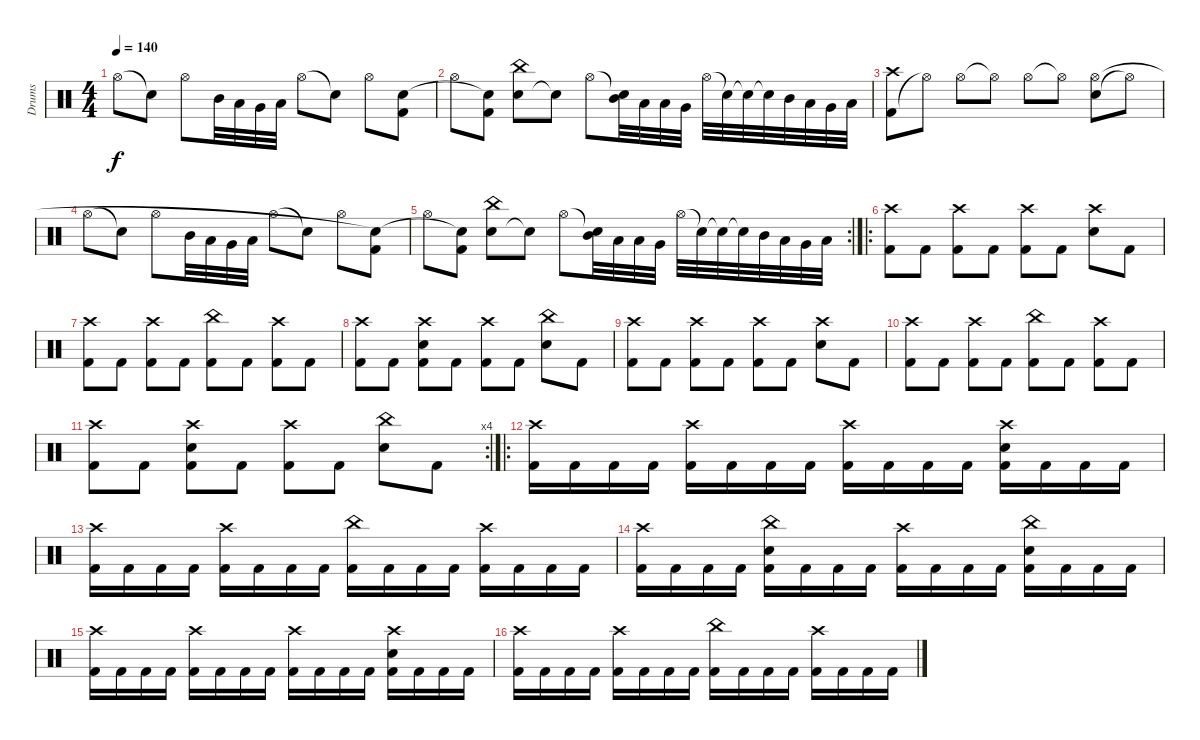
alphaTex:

\track ("Drums" "Drums") {instrument percussion}
\staff {score}
\articulation defaults
\ts (4 4)
\tempo 140
\clef neutral
\ks c "Hi-Hat (open)".8{dy f} "Snare (hit)"{t}.8 "Hi-Hat (open)".8 "Mid Tom (hit)".32 "Low Tom (hit)".32 "Very Low Tom (hit)".32 "Low Floor Tom (hit)".32 "Hi-Hat (open)".8 "Snare (hit)"{t}.8 "Hi-Hat (open)".8
("Kick (hit) 2" "Snare (hit)"{t}).8 |
"Hi-Hat (open)".8 ("Kick (hit) 2" "Snare (hit)"{t}).8 ("Electric Snare (hit)" "China (hit)").8 "Snare (hit)"{t}.8 "Hi-Hat (open)".8 ("Snare (hit)"{t} "Mid Tom (hit)").32 "Low Tom (hit)".32 "Low Tom (hit)".32 "Very Low Tom (hit)".32 "Hi-Hat (open)".32 "Snare (hit)"{t}.32 "Snare (hit)"{t}.32 "Snare (hit)"{t}.32 "Mid Tom (hit)".32 "Low Tom (hit)".32 "Very Low Tom (hit)".32 "Low Floor Tom (hit)".32 |
("Kick (hit) 2" "Crash high (hit)").8 "Hi-Hat (open)"{t}.8 "Hi-Hat (open)".8 "Hi-Hat (open)"{t}.8 "Hi-Hat (open)".8 "Hi-Hat (open)"{t}.8 ("Electric Snare (hit)" "Hi-Hat (open)").8 "Hi-Hat (open)"{t}.8 |
"Hi-Hat (open)".8 "Snare (hit)"{t}.8 "Hi-Hat (open)".8 "Mid Tom (hit)".32 "Low Tom (hit)".32 "Very Low Tom (hit)".32 "Low Floor Tom (hit)".32 "Hi-Hat (open)".8 "Snare (hit)"{t}.8 "Hi-Hat (open)".8 ("Kick (hit) 2" "Snare (hit)"{t}).8 |
\rc 2 "Hi-Hat (open)".8
("Kick (hit) 2" "Snare (hit)"{t}).8 ("Electric Snare (hit)" "China (hit)").8 "Snare (hit)"{t}.8 "Hi-Hat (open)".8 ("Snare (hit)"{t} "Mid Tom (hit)").32 "Low Tom (hit)".32 "Low Tom (hit)".32 "Very Low Tom (hit)".32 "Hi-Hat (open)".32 "Snare (hit)"{t}.32 "Snare (hit)"{t}.32 "Snare (hit)"{t}.32 "Mid Tom (hit)".32 "Low Tom (hit)".32 "Very Low Tom (hit)".32 "Low Floor Tom (hit)".32 |
\ro
("Kick (hit) 2" "Crash high (hit)").8 "Kick (hit) 2".8 ("Kick (hit) 2" "Crash high (hit)").8 "Kick (hit) 2".8 ("Kick (hit) 2" "Crash high (hit)").8 "Kick (hit) 2".8 ("Crash high (hit)" "Electric Snare (hit)").8 "Kick (hit) 2".8 |
("Kick (hit) 2" "Crash high (hit)").8 "Kick (hit) 2".8 ("Kick (hit) 2" "Crash high (hit)").8 "Kick (hit) 2".8 ("Kick (hit) 2" "China (hit)").8 "Kick (hit) 2".8 ("Kick (hit) 2" "Crash high (hit)").8 "Kick (hit) 2".8 |
("Kick (hit) 2" "Crash high (hit)").8 "Kick (hit) 2".8 ("Kick (hit) 2" "Crash high (hit)" "Electric Snare (hit)").8 "Kick (hit) 2".8 ("Kick (hit) 2" "Crash high (hit)").8 "Kick (hit) 2".8 ("China (hit)" "Electric Snare (hit)").8 "Kick (hit) 2".8 |
("Kick (hit) 2" "Crash high (hit)").8 "Kick (hit) 2".8 ("Kick (hit) 2" "Crash high (hit)").8 "Kick (hit) 2".8 ("Kick (hit) 2" "Crash high (hit)").8 "Kick (hit) 2".8 ("Crash high (hit)" "Electric Snare (hit)").8 "Kick (hit) 2".8 |
("Kick (hit) 2" "Crash high (hit)").8 "Kick (hit) 2".8 ("Kick (hit) 2" "Crash high (hit)").8 "Kick (hit) 2".8 ("Kick (hit) 2" "China (hit)").8 "Kick (hit) 2".8 ("Kick (hit) 2" "Crash high (hit)").8 "Kick (hit) 2".8 |
\rc 4
("Kick (hit) 2" "Crash high (hit)").8 "Kick (hit) 2".8 ("Kick (hit) 2" "Crash high (hit)" "Electric Snare (hit)").8 "Kick (hit) 2".8 ("Kick (hit) 2" "Crash high (hit)").8 "Kick (hit) 2".8 ("China (hit)" "Electric Snare (hit)").8 "Kick (hit) 2".8 |
\ro
("Kick (hit) 2" "Crash high (hit)").16 "Kick (hit) 2".16 "Kick (hit) 2".16 "Kick (hit) 2".16 ("Kick (hit) 2" "Crash high (hit)").16 "Kick (hit) 2".16 "Kick (hit) 2".16 "Kick (hit) 2".16 ("Kick (hit) 2" "Crash high (hit)").16 "Kick (hit) 2".16 "Kick (hit) 2".16 "Kick (hit) 2".16 ("Kick (hit) 2" "Crash high (hit)" "Electric Snare (hit)").16 "Kick (hit) 2".16 "Kick (hit) 2".16 "Kick (hit) 2".16 |
("Kick (hit) 2" "Crash high (hit)").16 "Kick (hit) 2".16 "Kick (hit) 2".16 "Kick (hit) 2".16 ("Kick (hit) 2" "Crash high (hit)").16 "Kick (hit) 2".16 "Kick (hit) 2".16 "Kick (hit) 2".16 ("Kick (hit) 2" "China (hit)").16 "Kick (hit) 2".16 "Kick (hit) 2".16 "Kick (hit) 2".16 ("Kick (hit) 2" "Crash high (hit)").16 "Kick (hit) 2".16 "Kick (hit) 2".16 "Kick (hit) 2".16 |
("Kick (hit) 2" "Crash high (hit)").16 "Kick (hit) 2".16 "Kick (hit) 2".16 "Kick (hit) 2".16 ("Kick (hit) 2" "Electric Snare (hit)" "China (hit)").16 "Kick (hit) 2".16 "Kick (hit) 2".16 "Kick (hit) 2".16 ("Kick (hit) 2" "Crash high (hit)").16 "Kick (hit) 2".16 "Kick (hit) 2".16 "Kick (hit) 2".16 ("Kick (hit) 2" "Electric Snare (hit)" "China (hit)").16 "Kick (hit) 2".16 "Kick (hit) 2".16 "Kick (hit) 2".16 |
("Kick (hit) 2" "Crash high (hit)").16 "Kick (hit) 2".16 "Kick (hit) 2".16 "Kick (hit) 2".16 ("Kick (hit) 2" "Crash high (hit)").16 "Kick (hit) 2".16 "Kick (hit) 2".16 "Kick (hit) 2".16 ("Kick (hit) 2" "Crash high (hit)").16 "Kick (hit) 2".16 "Kick (hit) 2".16 "Kick (hit) 2".16 ("Kick (hit) 2" "Crash high (hit)" "Electric Snare (hit)").16 "Kick (hit) 2".16 "Kick (hit) 2".16 "Kick (hit) 2".16 |
("Kick (hit) 2" "Crash high (hit)").16 "Kick (hit) 2".16 "Kick (hit) 2".16 "Kick (hit) 2".16 ("Kick (hit) 2" "Crash high (hit)").16 "Kick (hit) 2".16 "Kick (hit) 2".16 "Kick (hit) 2".16 ("Kick (hit) 2" "China (hit)").16 "Kick (hit) 2".16 "Kick (hit) 2".16 "Kick (hit) 2".16 ("Kick (hit) 2" "Crash high (hit)").16 "Kick (hit) 2".16 "Kick (hit) 2".16 "Kick (hit) 2".16
